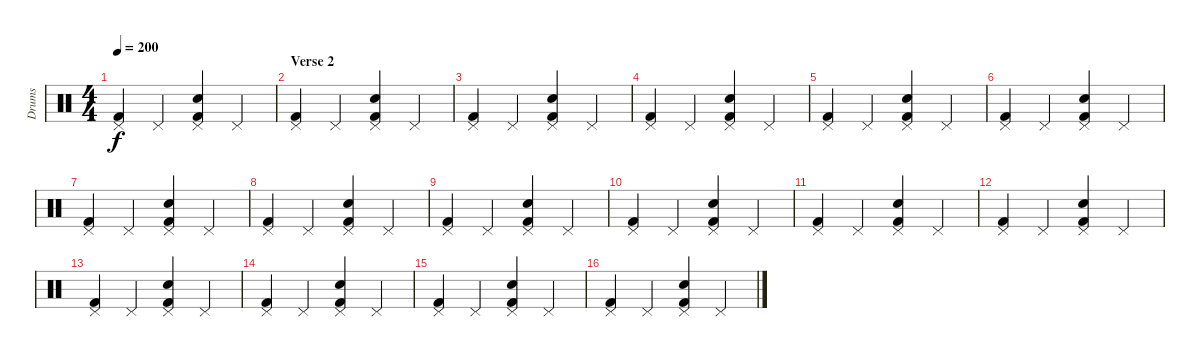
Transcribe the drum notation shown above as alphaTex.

\track ("Drums" "Drums") {instrument percussion}
\staff {score}
\articulation defaults
\ts (4 4)
\tempo 200
\clef neutral
\ks c
("Pedal Hi-Hat (hit)" "Kick (hit) 2").4{dy f} "Pedal Hi-Hat (hit)".4 ("Pedal Hi-Hat (hit)" "Kick (hit) 2" "Snare (hit) 2").4 "Pedal Hi-Hat (hit)".4 |
\section ("" "Verse 2")
("Pedal Hi-Hat (hit)" "Kick (hit) 2").4 "Pedal Hi-Hat (hit)".4 ("Pedal Hi-Hat (hit)" "Kick (hit) 2" "Snare (hit) 2").4 "Pedal Hi-Hat (hit)".4 |
("Pedal Hi-Hat (hit)" "Kick (hit) 2").4 "Pedal Hi-Hat (hit)".4 ("Pedal Hi-Hat (hit)" "Kick (hit) 2" "Snare (hit) 2").4 "Pedal Hi-Hat (hit)".4 |
("Pedal Hi-Hat (hit)" "Kick (hit) 2").4 "Pedal Hi-Hat (hit)".4 ("Pedal Hi-Hat (hit)" "Kick (hit) 2" "Snare (hit) 2").4 "Pedal Hi-Hat (hit)".4 |
("Pedal Hi-Hat (hit)" "Kick (hit) 2").4 "Pedal Hi-Hat (hit)".4 ("Pedal Hi-Hat (hit)" "Kick (hit) 2" "Snare (hit) 2").4 "Pedal Hi-Hat (hit)".4 |
("Pedal Hi-Hat (hit)" "Kick (hit) 2").4 "Pedal Hi-Hat (hit)".4 ("Pedal Hi-Hat (hit)" "Kick (hit) 2" "Snare (hit) 2").4 "Pedal Hi-Hat (hit)".4 |
("Pedal Hi-Hat (hit)" "Kick (hit) 2").4 "Pedal Hi-Hat (hit)".4 ("Pedal Hi-Hat (hit)" "Kick (hit) 2" "Snare (hit) 2").4 "Pedal Hi-Hat (hit)".4 |
("Pedal Hi-Hat (hit)" "Kick (hit) 2").4 "Pedal Hi-Hat (hit)".4 ("Pedal Hi-Hat (hit)" "Kick (hit) 2" "Snare (hit) 2").4 "Pedal Hi-Hat (hit)".4 |
("Pedal Hi-Hat (hit)" "Kick (hit) 2").4 "Pedal Hi-Hat (hit)".4 ("Pedal Hi-Hat (hit)" "Kick (hit) 2" "Snare (hit) 2").4 "Pedal Hi-Hat (hit)".4 |
("Pedal Hi-Hat (hit)" "Kick (hit) 2").4 "Pedal Hi-Hat (hit)".4 ("Pedal Hi-Hat (hit)" "Kick (hit) 2" "Snare (hit) 2").4 "Pedal Hi-Hat (hit)".4 |
("Pedal Hi-Hat (hit)" "Kick (hit) 2").4 "Pedal Hi-Hat (hit)".4 ("Pedal Hi-Hat (hit)" "Kick (hit) 2" "Snare (hit) 2").4 "Pedal Hi-Hat (hit)".4 |
("Pedal Hi-Hat (hit)" "Kick (hit) 2").4 "Pedal Hi-Hat (hit)".4 ("Pedal Hi-Hat (hit)" "Kick (hit) 2" "Snare (hit) 2").4 "Pedal Hi-Hat (hit)".4 |
("Pedal Hi-Hat (hit)" "Kick (hit) 2").4 "Pedal Hi-Hat (hit)".4 ("Pedal Hi-Hat (hit)" "Kick (hit) 2" "Snare (hit) 2").4 "Pedal Hi-Hat (hit)".4 |
("Pedal Hi-Hat (hit)" "Kick (hit) 2").4 "Pedal Hi-Hat (hit)".4 ("Pedal Hi-Hat (hit)" "Kick (hit) 2" "Snare (hit) 2").4 "Pedal Hi-Hat (hit)".4 |
("Pedal Hi-Hat (hit)" "Kick (hit) 2").4 "Pedal Hi-Hat (hit)".4 ("Pedal Hi-Hat (hit)" "Kick (hit) 2" "Snare (hit) 2").4 "Pedal Hi-Hat (hit)".4 |
("Pedal Hi-Hat (hit)" "Kick (hit) 2").4 "Pedal Hi-Hat (hit)".4 ("Pedal Hi-Hat (hit)" "Kick (hit) 2" "Snare (hit) 2").4 "Pedal Hi-Hat (hit)".4
